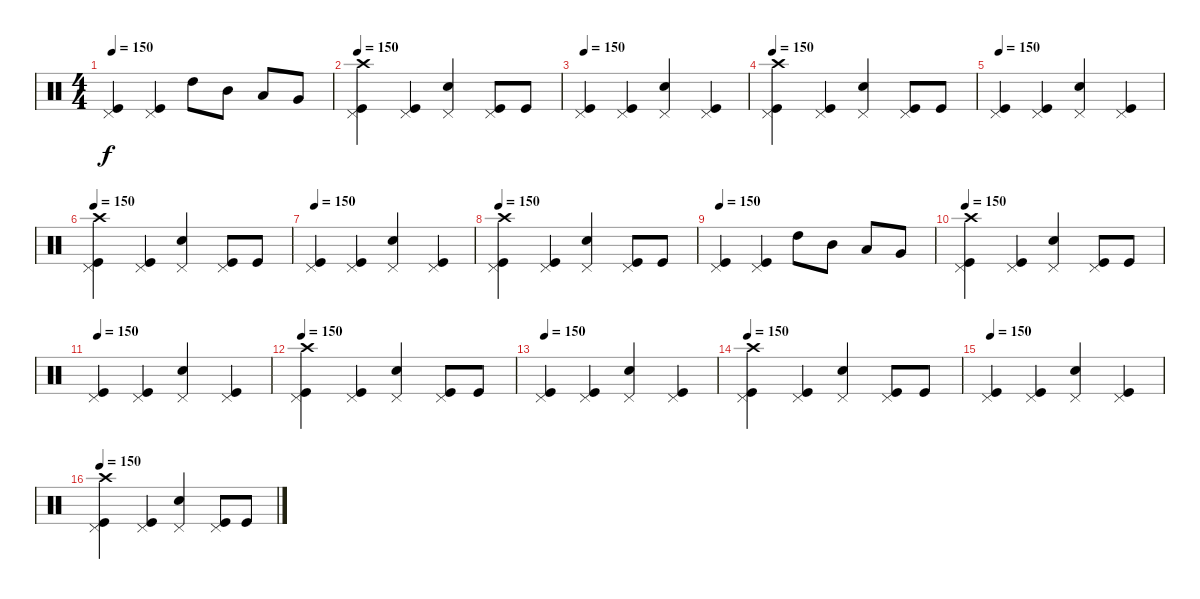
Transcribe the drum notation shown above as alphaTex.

\track "" {instrument percussion}
\staff {score}
\articulation defaults
\ts (4 4)
\tempo 150
\clef neutral
\ks c
("Pedal Hi-Hat (hit)" "Kick (hit)").4{dy f} ("Pedal Hi-Hat (hit)" "Kick (hit)").4 "High Tom (hit)".8 "Mid Tom (hit)".8 "Low Tom (hit)".8 "Very Low Tom (hit)".8 |
\tempo 150
("Pedal Hi-Hat (hit)" "Crash high (hit)" "Kick (hit)").4 ("Pedal Hi-Hat (hit)" "Kick (hit)").4 ("Pedal Hi-Hat (hit)" "Snare (hit) 2").4 ("Pedal Hi-Hat (hit)" "Kick (hit)").8 "Kick (hit)".8 |
\tempo 150
("Pedal Hi-Hat (hit)" "Kick (hit)").4 ("Pedal Hi-Hat (hit)" "Kick (hit)").4 ("Pedal Hi-Hat (hit)" "Snare (hit) 2").4 ("Pedal Hi-Hat (hit)" "Kick (hit)").4 |
\tempo 150
("Pedal Hi-Hat (hit)" "Crash high (hit)" "Kick (hit)").4 ("Pedal Hi-Hat (hit)" "Kick (hit)").4 ("Pedal Hi-Hat (hit)" "Snare (hit) 2").4 ("Pedal Hi-Hat (hit)" "Kick (hit)").8 "Kick (hit)".8 |
\tempo 150
("Pedal Hi-Hat (hit)" "Kick (hit)").4 ("Pedal Hi-Hat (hit)" "Kick (hit)").4 ("Pedal Hi-Hat (hit)" "Snare (hit) 2").4 ("Pedal Hi-Hat (hit)" "Kick (hit)").4 |
\tempo 150
("Pedal Hi-Hat (hit)" "Crash high (hit)" "Kick (hit)").4 ("Pedal Hi-Hat (hit)" "Kick (hit)").4 ("Pedal Hi-Hat (hit)" "Snare (hit) 2").4 ("Pedal Hi-Hat (hit)" "Kick (hit)").8 "Kick (hit)".8 |
\tempo 150
("Pedal Hi-Hat (hit)" "Kick (hit)").4 ("Pedal Hi-Hat (hit)" "Kick (hit)").4 ("Pedal Hi-Hat (hit)" "Snare (hit) 2").4 ("Pedal Hi-Hat (hit)" "Kick (hit)").4 |
\tempo 150
("Pedal Hi-Hat (hit)" "Crash high (hit)" "Kick (hit)").4 ("Pedal Hi-Hat (hit)" "Kick (hit)").4 ("Pedal Hi-Hat (hit)" "Snare (hit) 2").4 ("Pedal Hi-Hat (hit)" "Kick (hit)").8 "Kick (hit)".8 |
\tempo 150
("Pedal Hi-Hat (hit)" "Kick (hit)").4 ("Pedal Hi-Hat (hit)" "Kick (hit)").4 "High Tom (hit)".8 "Mid Tom (hit)".8 "Low Tom (hit)".8 "Very Low Tom (hit)".8 |
\tempo 150
("Pedal Hi-Hat (hit)" "Crash high (hit)" "Kick (hit)").4 ("Pedal Hi-Hat (hit)" "Kick (hit)").4 ("Pedal Hi-Hat (hit)" "Snare (hit) 2").4 ("Pedal Hi-Hat (hit)" "Kick (hit)").8 "Kick (hit)".8 |
\tempo 150
("Pedal Hi-Hat (hit)" "Kick (hit)").4 ("Pedal Hi-Hat (hit)" "Kick (hit)").4 ("Pedal Hi-Hat (hit)" "Snare (hit) 2").4 ("Pedal Hi-Hat (hit)" "Kick (hit)").4 |
\tempo 150
("Pedal Hi-Hat (hit)" "Crash high (hit)" "Kick (hit)").4 ("Pedal Hi-Hat (hit)" "Kick (hit)").4 ("Pedal Hi-Hat (hit)" "Snare (hit) 2").4 ("Pedal Hi-Hat (hit)" "Kick (hit)").8 "Kick (hit)".8 |
\tempo 150
("Pedal Hi-Hat (hit)" "Kick (hit)").4 ("Pedal Hi-Hat (hit)" "Kick (hit)").4 ("Pedal Hi-Hat (hit)" "Snare (hit) 2").4 ("Pedal Hi-Hat (hit)" "Kick (hit)").4 |
\tempo 150
("Pedal Hi-Hat (hit)" "Crash high (hit)" "Kick (hit)").4 ("Pedal Hi-Hat (hit)" "Kick (hit)").4 ("Pedal Hi-Hat (hit)" "Snare (hit) 2").4 ("Pedal Hi-Hat (hit)" "Kick (hit)").8 "Kick (hit)".8 |
\tempo 150
("Pedal Hi-Hat (hit)" "Kick (hit)").4 ("Pedal Hi-Hat (hit)" "Kick (hit)").4 ("Pedal Hi-Hat (hit)" "Snare (hit) 2").4 ("Pedal Hi-Hat (hit)" "Kick (hit)").4 |
\tempo 150
("Pedal Hi-Hat (hit)" "Crash high (hit)" "Kick (hit)").4 ("Pedal Hi-Hat (hit)" "Kick (hit)").4 ("Pedal Hi-Hat (hit)" "Snare (hit) 2").4 ("Pedal Hi-Hat (hit)" "Kick (hit)").8 "Kick (hit)".8
